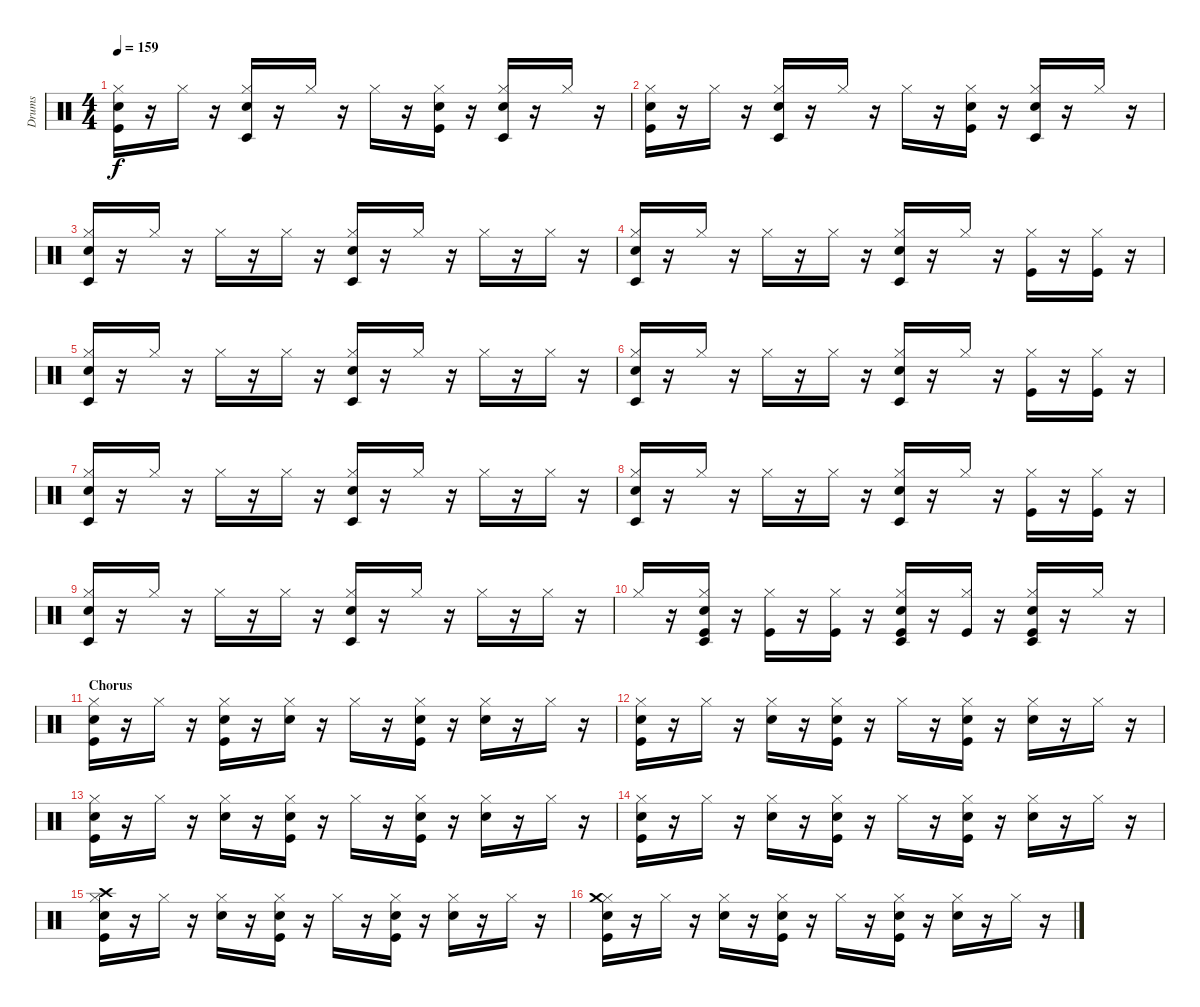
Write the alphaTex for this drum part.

\track ("Drums" "Drums") {instrument percussion}
\staff {score}
\articulation defaults
\ts (4 4)
\tempo 159
\clef neutral
\ks c
("Hi-Hat (closed)" "Snare (hit) 2" "Kick (hit)").16{dy f} r.16 "Hi-Hat (closed)".16 r.16 ("Hi-Hat (closed)" "Timbale low (hit)" "Snare (hit) 2").16 r.16 "Hi-Hat (closed)".16 r.16 "Hi-Hat (closed)".16 r.16 ("Hi-Hat (closed)" "Snare (hit) 2" "Kick (hit)").16 r.16 ("Hi-Hat (closed)" "Timbale low (hit)" "Snare (hit) 2").16 r.16 "Hi-Hat (closed)".16 r.16 |
("Hi-Hat (closed)" "Snare (hit) 2" "Kick (hit)").16 r.16 "Hi-Hat (closed)".16 r.16 ("Hi-Hat (closed)" "Timbale low (hit)" "Snare (hit) 2").16 r.16 "Hi-Hat (closed)".16 r.16 "Hi-Hat (closed)".16 r.16 ("Hi-Hat (closed)" "Snare (hit) 2" "Kick (hit)").16 r.16 ("Hi-Hat (closed)" "Timbale low (hit)" "Snare (hit) 2").16 r.16 "Hi-Hat (closed)".16 r.16 |
("Hi-Hat (closed)" "Timbale low (hit)" "Snare (hit) 2").16 r.16 "Hi-Hat (closed)".16 r.16 "Hi-Hat (closed)".16 r.16 "Hi-Hat (closed)".16 r.16 ("Hi-Hat (closed)" "Timbale low (hit)" "Snare (hit) 2").16 r.16 "Hi-Hat (closed)".16 r.16 "Hi-Hat (closed)".16 r.16 "Hi-Hat (closed)".16 r.16 |
("Hi-Hat (closed)" "Timbale low (hit)" "Snare (hit) 2").16 r.16 "Hi-Hat (closed)".16 r.16 "Hi-Hat (closed)".16 r.16 "Hi-Hat (closed)".16 r.16 ("Hi-Hat (closed)" "Timbale low (hit)" "Snare (hit) 2").16 r.16 "Hi-Hat (closed)".16 r.16 ("Hi-Hat (closed)" "Kick (hit)").16 r.16 ("Hi-Hat (closed)" "Kick (hit)").16 r.16 |
("Hi-Hat (closed)" "Timbale low (hit)" "Snare (hit) 2").16 r.16 "Hi-Hat (closed)".16 r.16 "Hi-Hat (closed)".16 r.16 "Hi-Hat (closed)".16 r.16 ("Hi-Hat (closed)" "Timbale low (hit)" "Snare (hit) 2").16 r.16 "Hi-Hat (closed)".16 r.16 "Hi-Hat (closed)".16 r.16 "Hi-Hat (closed)".16 r.16 |
("Hi-Hat (closed)" "Timbale low (hit)" "Snare (hit) 2").16 r.16 "Hi-Hat (closed)".16 r.16 "Hi-Hat (closed)".16 r.16 "Hi-Hat (closed)".16 r.16 ("Hi-Hat (closed)" "Timbale low (hit)" "Snare (hit) 2").16 r.16 "Hi-Hat (closed)".16 r.16 ("Hi-Hat (closed)" "Kick (hit)").16 r.16 ("Hi-Hat (closed)" "Kick (hit)").16 r.16 |
("Hi-Hat (closed)" "Timbale low (hit)" "Snare (hit) 2").16 r.16 "Hi-Hat (closed)".16 r.16 "Hi-Hat (closed)".16 r.16 "Hi-Hat (closed)".16 r.16 ("Hi-Hat (closed)" "Timbale low (hit)" "Snare (hit) 2").16 r.16 "Hi-Hat (closed)".16 r.16 "Hi-Hat (closed)".16 r.16 "Hi-Hat (closed)".16 r.16 |
("Hi-Hat (closed)" "Timbale low (hit)" "Snare (hit) 2").16 r.16 "Hi-Hat (closed)".16 r.16 "Hi-Hat (closed)".16 r.16 "Hi-Hat (closed)".16 r.16 ("Hi-Hat (closed)" "Timbale low (hit)" "Snare (hit) 2").16 r.16 "Hi-Hat (closed)".16 r.16 ("Hi-Hat (closed)" "Kick (hit)").16 r.16 ("Hi-Hat (closed)" "Kick (hit)").16 r.16 |
("Hi-Hat (closed)" "Timbale low (hit)" "Snare (hit) 2").16 r.16 "Hi-Hat (closed)".16 r.16 "Hi-Hat (closed)".16 r.16 "Hi-Hat (closed)".16 r.16 ("Hi-Hat (closed)" "Timbale low (hit)" "Snare (hit) 2").16 r.16 "Hi-Hat (closed)".16 r.16 "Hi-Hat (closed)".16 r.16 "Hi-Hat (closed)".16 r.16 |
"Hi-Hat (closed)".16 r.16 ("Hi-Hat (closed)" "Timbale low (hit)" "Snare (hit) 2" "Kick (hit)").16 r.16 ("Hi-Hat (closed)" "Kick (hit)").16 r.16 ("Hi-Hat (closed)" "Kick (hit)").16 r.16 ("Hi-Hat (closed)" "Timbale low (hit)" "Snare (hit) 2" "Kick (hit)").16 r.16 ("Hi-Hat (closed)" "Kick (hit)").16 r.16 ("Hi-Hat (closed)" "Timbale low (hit)" "Snare (hit) 2" "Kick (hit)").16 r.16 "Hi-Hat (closed)".16 r.16 |
\section ("" "Chorus")
("Hi-Hat (closed)" "Snare (hit) 2" "Kick (hit)").16 r.16 "Hi-Hat (closed)".16 r.16 ("Hi-Hat (closed)" "Snare (hit) 2" "Kick (hit)").16 r.16 ("Hi-Hat (closed)" "Snare (hit) 2").16 r.16 "Hi-Hat (closed)".16 r.16 ("Hi-Hat (closed)" "Snare (hit) 2" "Kick (hit)").16 r.16 ("Hi-Hat (closed)" "Snare (hit) 2").16 r.16 "Hi-Hat (closed)".16 r.16 |
("Hi-Hat (closed)" "Snare (hit) 2" "Kick (hit)").16 r.16 "Hi-Hat (closed)".16 r.16 ("Hi-Hat (closed)" "Snare (hit) 2").16 r.16 ("Hi-Hat (closed)" "Snare (hit) 2" "Kick (hit)").16 r.16 "Hi-Hat (closed)".16 r.16 ("Hi-Hat (closed)" "Snare (hit) 2" "Kick (hit)").16 r.16 ("Hi-Hat (closed)" "Snare (hit) 2").16 r.16 "Hi-Hat (closed)".16 r.16 |
("Hi-Hat (closed)" "Snare (hit) 2" "Kick (hit)").16 r.16 "Hi-Hat (closed)".16 r.16 ("Hi-Hat (closed)" "Snare (hit) 2").16 r.16 ("Hi-Hat (closed)" "Snare (hit) 2" "Kick (hit)").16 r.16 "Hi-Hat (closed)".16 r.16 ("Hi-Hat (closed)" "Snare (hit) 2" "Kick (hit)").16 r.16 ("Hi-Hat (closed)" "Snare (hit) 2").16 r.16 "Hi-Hat (closed)".16 r.16 |
("Hi-Hat (closed)" "Snare (hit) 2" "Kick (hit)").16 r.16 "Hi-Hat (closed)".16 r.16 ("Hi-Hat (closed)" "Snare (hit) 2").16 r.16 ("Hi-Hat (closed)" "Snare (hit) 2" "Kick (hit)").16 r.16 "Hi-Hat (closed)".16 r.16 ("Hi-Hat (closed)" "Snare (hit) 2" "Kick (hit)").16 r.16 ("Hi-Hat (closed)" "Snare (hit) 2").16 r.16 "Hi-Hat (closed)".16 r.16 |
("Hi-Hat (closed)" "Crash high (hit)" "Snare (hit) 2" "Kick (hit)").16 r.16 "Hi-Hat (closed)".16 r.16 ("Hi-Hat (closed)" "Snare (hit) 2").16 r.16 ("Hi-Hat (closed)" "Snare (hit) 2" "Kick (hit)").16 r.16 "Hi-Hat (closed)".16 r.16 ("Hi-Hat (closed)" "Snare (hit) 2" "Kick (hit)").16 r.16 ("Hi-Hat (closed)" "Snare (hit) 2").16 r.16 "Hi-Hat (closed)".16 r.16 |
("Hi-Hat (closed)" "Crash medium (hit)" "Snare (hit) 2" "Kick (hit)").16 r.16 "Hi-Hat (closed)".16 r.16 ("Hi-Hat (closed)" "Snare (hit) 2").16 r.16 ("Hi-Hat (closed)" "Snare (hit) 2" "Kick (hit)").16 r.16 "Hi-Hat (closed)".16 r.16 ("Hi-Hat (closed)" "Snare (hit) 2" "Kick (hit)").16 r.16 ("Hi-Hat (closed)" "Snare (hit) 2").16 r.16 "Hi-Hat (closed)".16 r.16
